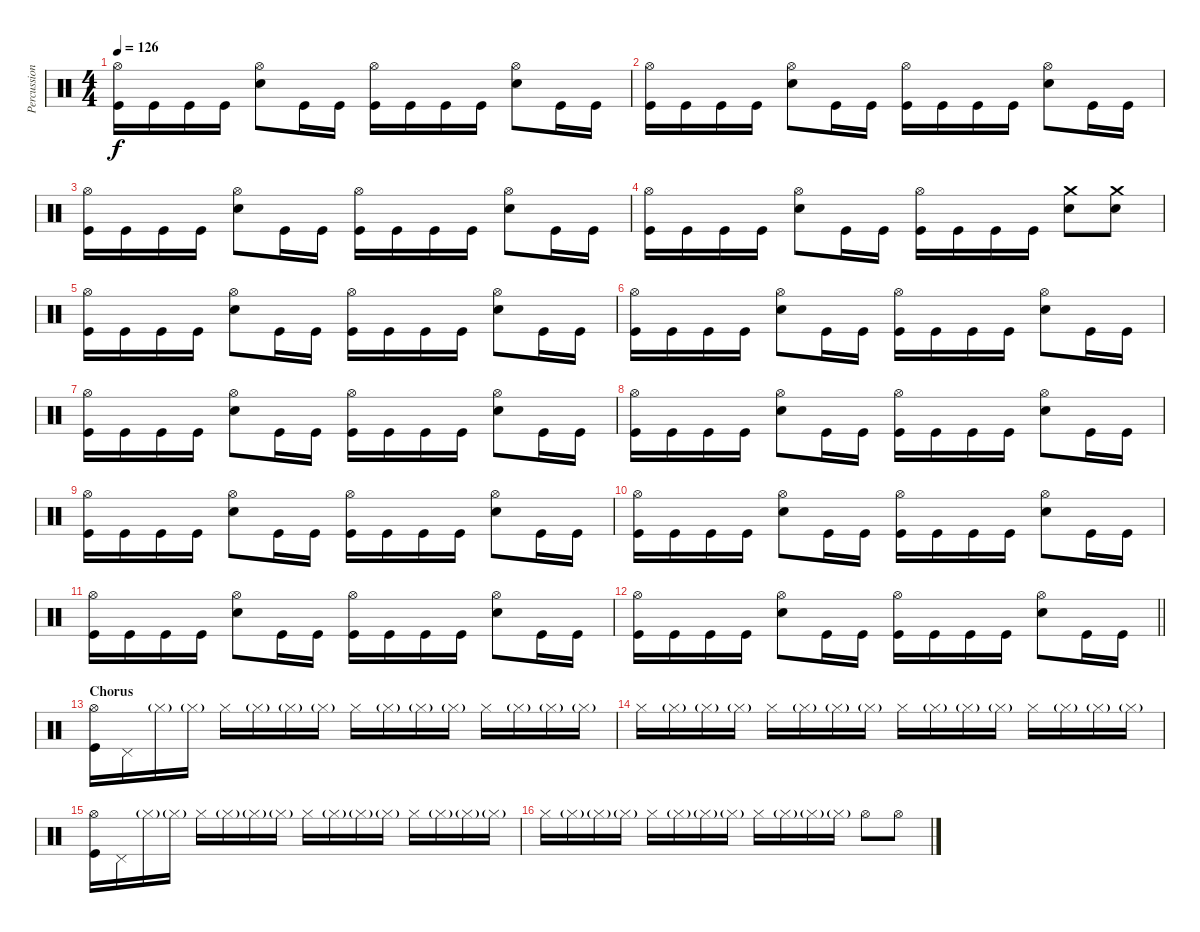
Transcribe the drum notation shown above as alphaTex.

\track ("Percussion" "Percussion") {instrument percussion}
\staff {score}
\articulation defaults
\ts (4 4)
\tempo 126
\clef neutral
\ks c
("Hi-Hat (open)" "Kick (hit)").16{dy f} "Kick (hit)".16 "Kick (hit)".16 "Kick (hit)".16 ("Hi-Hat (open)" "Electric Snare (hit)").8 "Kick (hit)".16 "Kick (hit)".16 ("Hi-Hat (open)" "Kick (hit)").16 "Kick (hit)".16 "Kick (hit)".16 "Kick (hit)".16 ("Hi-Hat (open)" "Electric Snare (hit)").8 "Kick (hit)".16 "Kick (hit)".16 |
("Hi-Hat (open)" "Kick (hit)").16 "Kick (hit)".16 "Kick (hit)".16 "Kick (hit)".16 ("Hi-Hat (open)" "Electric Snare (hit)").8 "Kick (hit)".16 "Kick (hit)".16 ("Hi-Hat (open)" "Kick (hit)").16 "Kick (hit)".16 "Kick (hit)".16 "Kick (hit)".16 ("Hi-Hat (open)" "Electric Snare (hit)").8 "Kick (hit)".16 "Kick (hit)".16 |
("Hi-Hat (open)" "Kick (hit)").16 "Kick (hit)".16 "Kick (hit)".16 "Kick (hit)".16 ("Hi-Hat (open)" "Electric Snare (hit)").8 "Kick (hit)".16 "Kick (hit)".16 ("Hi-Hat (open)" "Kick (hit)").16 "Kick (hit)".16 "Kick (hit)".16 "Kick (hit)".16 ("Hi-Hat (open)" "Electric Snare (hit)").8 "Kick (hit)".16 "Kick (hit)".16 |
("Hi-Hat (open)" "Kick (hit)").16 "Kick (hit)".16 "Kick (hit)".16 "Kick (hit)".16 ("Hi-Hat (open)" "Electric Snare (hit)").8 "Kick (hit)".16 "Kick (hit)".16 ("Hi-Hat (open)" "Kick (hit)").16 "Kick (hit)".16 "Kick (hit)".16 "Kick (hit)".16 ("Crash medium (hit)" "Electric Snare (hit)").8 ("Crash medium (hit)" "Electric Snare (hit)").8 |
("Hi-Hat (open)" "Kick (hit)").16 "Kick (hit)".16 "Kick (hit)".16 "Kick (hit)".16 ("Hi-Hat (open)" "Electric Snare (hit)").8 "Kick (hit)".16 "Kick (hit)".16 ("Hi-Hat (open)" "Kick (hit)").16 "Kick (hit)".16 "Kick (hit)".16 "Kick (hit)".16 ("Hi-Hat (open)" "Electric Snare (hit)").8 "Kick (hit)".16 "Kick (hit)".16 |
("Hi-Hat (open)" "Kick (hit)").16 "Kick (hit)".16 "Kick (hit)".16 "Kick (hit)".16 ("Hi-Hat (open)" "Electric Snare (hit)").8 "Kick (hit)".16 "Kick (hit)".16 ("Hi-Hat (open)" "Kick (hit)").16 "Kick (hit)".16 "Kick (hit)".16 "Kick (hit)".16 ("Hi-Hat (open)" "Electric Snare (hit)").8 "Kick (hit)".16 "Kick (hit)".16 |
("Hi-Hat (open)" "Kick (hit)").16 "Kick (hit)".16 "Kick (hit)".16 "Kick (hit)".16 ("Hi-Hat (open)" "Electric Snare (hit)").8 "Kick (hit)".16 "Kick (hit)".16 ("Hi-Hat (open)" "Kick (hit)").16 "Kick (hit)".16 "Kick (hit)".16 "Kick (hit)".16 ("Hi-Hat (open)" "Electric Snare (hit)").8 "Kick (hit)".16 "Kick (hit)".16 |
("Hi-Hat (open)" "Kick (hit)").16 "Kick (hit)".16 "Kick (hit)".16 "Kick (hit)".16 ("Hi-Hat (open)" "Electric Snare (hit)").8 "Kick (hit)".16 "Kick (hit)".16 ("Hi-Hat (open)" "Kick (hit)").16 "Kick (hit)".16 "Kick (hit)".16 "Kick (hit)".16 ("Hi-Hat (open)" "Electric Snare (hit)").8 "Kick (hit)".16 "Kick (hit)".16 |
("Hi-Hat (open)" "Kick (hit)").16 "Kick (hit)".16 "Kick (hit)".16 "Kick (hit)".16 ("Hi-Hat (open)" "Electric Snare (hit)").8 "Kick (hit)".16 "Kick (hit)".16 ("Hi-Hat (open)" "Kick (hit)").16 "Kick (hit)".16 "Kick (hit)".16 "Kick (hit)".16 ("Hi-Hat (open)" "Electric Snare (hit)").8 "Kick (hit)".16 "Kick (hit)".16 |
("Hi-Hat (open)" "Kick (hit)").16 "Kick (hit)".16 "Kick (hit)".16 "Kick (hit)".16 ("Hi-Hat (open)" "Electric Snare (hit)").8 "Kick (hit)".16 "Kick (hit)".16 ("Hi-Hat (open)" "Kick (hit)").16 "Kick (hit)".16 "Kick (hit)".16 "Kick (hit)".16 ("Hi-Hat (open)" "Electric Snare (hit)").8 "Kick (hit)".16 "Kick (hit)".16 |
("Hi-Hat (open)" "Kick (hit)").16 "Kick (hit)".16 "Kick (hit)".16 "Kick (hit)".16 ("Hi-Hat (open)" "Electric Snare (hit)").8 "Kick (hit)".16 "Kick (hit)".16 ("Hi-Hat (open)" "Kick (hit)").16 "Kick (hit)".16 "Kick (hit)".16 "Kick (hit)".16 ("Hi-Hat (open)" "Electric Snare (hit)").8 "Kick (hit)".16 "Kick (hit)".16 |
\barLineRight lightlight
("Hi-Hat (open)" "Kick (hit)").16 "Kick (hit)".16 "Kick (hit)".16 "Kick (hit)".16 ("Hi-Hat (open)" "Electric Snare (hit)").8 "Kick (hit)".16 "Kick (hit)".16 ("Hi-Hat (open)" "Kick (hit)").16 "Kick (hit)".16 "Kick (hit)".16 "Kick (hit)".16 ("Hi-Hat (open)" "Electric Snare (hit)").8 "Kick (hit)".16 "Kick (hit)".16 |
\section ("" "Chorus")
("Hi-Hat (open)" "Kick (hit)").16 "Pedal Hi-Hat (hit)".16 "Hi-Hat (closed)"{g}.16 "Hi-Hat (closed)"{g}.16 "Hi-Hat (closed)".16 "Hi-Hat (closed)"{g}.16 "Hi-Hat (closed)"{g}.16 "Hi-Hat (closed)"{g}.16 "Hi-Hat (closed)".16 "Hi-Hat (closed)"{g}.16 "Hi-Hat (closed)"{g}.16 "Hi-Hat (closed)"{g}.16 "Hi-Hat (closed)".16 "Hi-Hat (closed)"{g}.16 "Hi-Hat (closed)"{g}.16 "Hi-Hat (closed)"{g}.16 |
"Hi-Hat (closed)".16 "Hi-Hat (closed)"{g}.16 "Hi-Hat (closed)"{g}.16 "Hi-Hat (closed)"{g}.16 "Hi-Hat (closed)".16 "Hi-Hat (closed)"{g}.16 "Hi-Hat (closed)"{g}.16 "Hi-Hat (closed)"{g}.16 "Hi-Hat (closed)".16 "Hi-Hat (closed)"{g}.16 "Hi-Hat (closed)"{g}.16 "Hi-Hat (closed)"{g}.16 "Hi-Hat (closed)".16 "Hi-Hat (closed)"{g}.16 "Hi-Hat (closed)"{g}.16 "Hi-Hat (closed)"{g}.16 |
("Hi-Hat (open)" "Kick (hit)").16 "Pedal Hi-Hat (hit)".16 "Hi-Hat (closed)"{g}.16 "Hi-Hat (closed)"{g}.16 "Hi-Hat (closed)".16 "Hi-Hat (closed)"{g}.16 "Hi-Hat (closed)"{g}.16 "Hi-Hat (closed)"{g}.16 "Hi-Hat (closed)".16 "Hi-Hat (closed)"{g}.16 "Hi-Hat (closed)"{g}.16 "Hi-Hat (closed)"{g}.16 "Hi-Hat (closed)".16 "Hi-Hat (closed)"{g}.16 "Hi-Hat (closed)"{g}.16 "Hi-Hat (closed)"{g}.16 |
"Hi-Hat (closed)".16 "Hi-Hat (closed)"{g}.16 "Hi-Hat (closed)"{g}.16 "Hi-Hat (closed)"{g}.16 "Hi-Hat (closed)".16 "Hi-Hat (closed)"{g}.16 "Hi-Hat (closed)"{g}.16 "Hi-Hat (closed)"{g}.16 "Hi-Hat (closed)".16 "Hi-Hat (closed)"{g}.16 "Hi-Hat (closed)"{g}.16 "Hi-Hat (closed)"{g}.16 "Hi-Hat (open)".8 "Hi-Hat (open)".8
